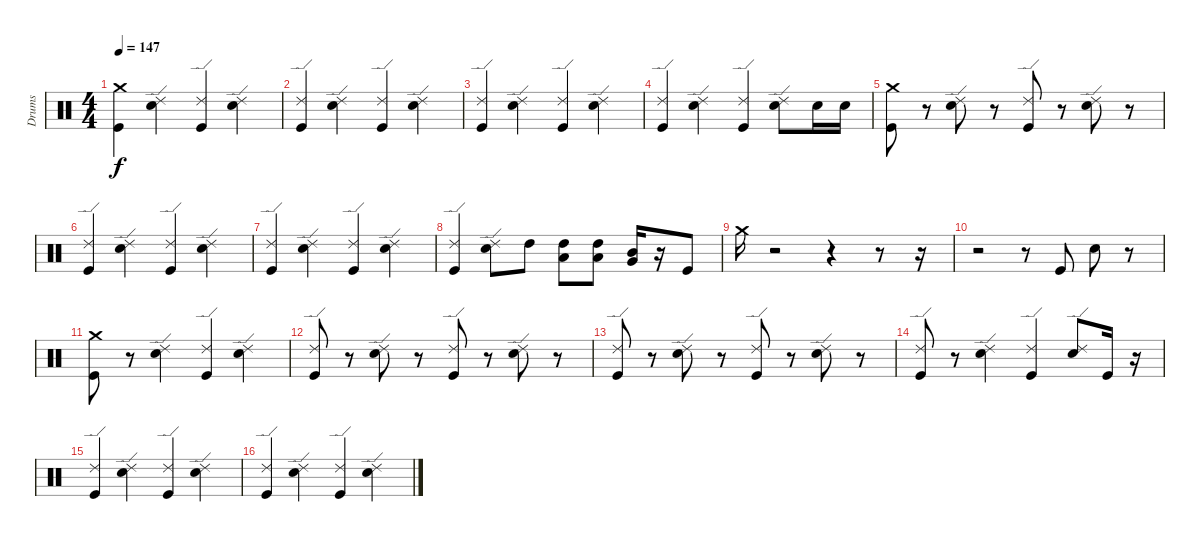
\track ("Drums" "Drums") {instrument percussion}
\staff {score}
\articulation defaults
\ts (4 4)
\tempo 147
\clef neutral
\ks c
("Crash medium (hit)" "Kick (hit)").4{dy f} ("Ride (edge) 2" "Snare (hit) 2").4 ("Ride (edge) 2" "Kick (hit)").4 ("Ride (edge) 2" "Snare (hit) 2").4 |
("Ride (edge) 2" "Kick (hit)").4 ("Ride (edge) 2" "Snare (hit) 2").4 ("Ride (edge) 2" "Kick (hit)").4 ("Ride (edge) 2" "Snare (hit) 2").4 |
("Ride (edge) 2" "Kick (hit)").4 ("Ride (edge) 2" "Snare (hit) 2").4 ("Ride (edge) 2" "Kick (hit)").4 ("Ride (edge) 2" "Snare (hit) 2").4 |
("Ride (edge) 2" "Kick (hit)").4 ("Ride (edge) 2" "Snare (hit) 2").4 ("Ride (edge) 2" "Kick (hit)").4 ("Ride (edge) 2" "Snare (hit) 2").8 "Snare (hit) 2".16 "Snare (hit) 2".16 |
("Crash medium (hit)" "Kick (hit)").8 r.8 ("Ride (edge) 2" "Snare (hit) 2").8 r.8 ("Ride (edge) 2" "Kick (hit)").8 r.8 ("Ride (edge) 2" "Snare (hit) 2").8 r.8 |
("Ride (edge) 2" "Kick (hit)").4 ("Ride (edge) 2" "Snare (hit) 2").4 ("Ride (edge) 2" "Kick (hit)").4 ("Ride (edge) 2" "Snare (hit) 2").4 |
("Ride (edge) 2" "Kick (hit)").4 ("Ride (edge) 2" "Snare (hit) 2").4 ("Ride (edge) 2" "Kick (hit)").4 ("Ride (edge) 2" "Snare (hit) 2").4 |
("Ride (edge) 2" "Kick (hit)").4 ("Ride (edge) 2" "Snare (hit) 2").8 "High Tom (hit)".8 ("Low Tom (hit)" "High Tom (hit)").8 ("Low Tom (hit)" "High Tom (hit)").8 ("Very Low Tom (hit)" "Mid Tom (hit)").16 r.16 "Kick (hit)".8 |
"Crash medium (hit)".16 r.2 r.4 r.8 r.16 |
r.2 r.8 "Kick (hit)".8 "Snare (hit) 2".8 r.8 |
("Crash medium (hit)" "Kick (hit)").8 r.8 ("Ride (edge) 2" "Snare (hit) 2").4 ("Ride (edge) 2" "Kick (hit)").4 ("Ride (edge) 2" "Snare (hit) 2").4 |
("Ride (edge) 2" "Kick (hit)").8 r.8 ("Ride (edge) 2" "Snare (hit) 2").8 r.8 ("Ride (edge) 2" "Kick (hit)").8 r.8 ("Ride (edge) 2" "Snare (hit) 2").8 r.8 |
("Ride (edge) 2" "Kick (hit)").8 r.8 ("Ride (edge) 2" "Snare (hit) 2").8 r.8 ("Ride (edge) 2" "Kick (hit)").8 r.8 ("Ride (edge) 2" "Snare (hit) 2").8 r.8 |
("Ride (edge) 2" "Kick (hit)").8 r.8 ("Ride (edge) 2" "Snare (hit) 2").4 ("Ride (edge) 2" "Kick (hit)").4 ("Ride (edge) 2" "Snare (hit) 2").8 "Kick (hit)".16 r.16 |
("Ride (edge) 2" "Kick (hit)").4 ("Ride (edge) 2" "Snare (hit) 2").4 ("Ride (edge) 2" "Kick (hit)").4 ("Ride (edge) 2" "Snare (hit) 2").4 |
("Ride (edge) 2" "Kick (hit)").4 ("Ride (edge) 2" "Snare (hit) 2").4 ("Ride (edge) 2" "Kick (hit)").4 ("Ride (edge) 2" "Snare (hit) 2").4
